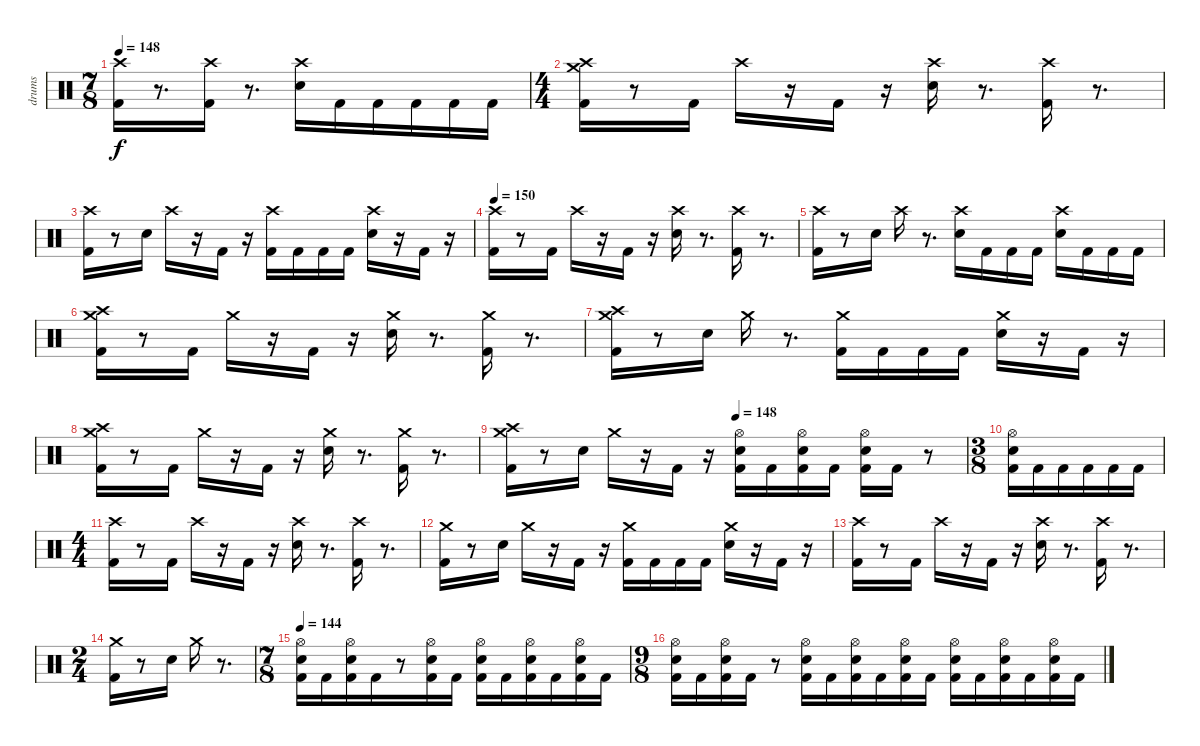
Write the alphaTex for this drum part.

\track ("drums" "drums") {instrument percussion}
\staff {score}
\articulation defaults
\ts (7 8)
\tempo 148
\clef neutral
\ks c
("Kick (hit) 2" "Crash high (hit)").16{dy f} r.8{d} ("Kick (hit) 2" "Crash high (hit)").16 r.8{d} ("Snare (hit) 2" "Crash high (hit)").16 "Kick (hit) 2".16 "Kick (hit) 2".16 "Kick (hit) 2".16 "Kick (hit) 2".16 "Kick (hit) 2".16 |
\ts (4 4)
("Kick (hit) 2" "Crash high (hit)" "Crash medium (hit)").16 r.8 "Kick (hit) 2".16 "Crash high (hit)".16 r.16 "Kick (hit) 2".16 r.16 ("Snare (hit) 2" "Crash high (hit)").16 r.8{d} ("Kick (hit) 2" "Crash high (hit)").16 r.8{d} |
("Kick (hit) 2" "Crash high (hit)").16 r.8 "Snare (hit) 2".16 "Crash high (hit)".16 r.16 "Kick (hit) 2".16 r.16 ("Kick (hit) 2" "Crash high (hit)").16 "Kick (hit) 2".16 "Kick (hit) 2".16 "Kick (hit) 2".16 ("Snare (hit) 2" "Crash high (hit)").16 r.16 "Kick (hit) 2".16 r.16 |
\tempo 150
("Kick (hit) 2" "Crash high (hit)").16 r.8 "Kick (hit) 2".16 "Crash high (hit)".16 r.16 "Kick (hit) 2".16 r.16 ("Snare (hit) 2" "Crash high (hit)").16 r.8{d} ("Kick (hit) 2" "Crash high (hit)").16 r.8{d} |
("Kick (hit) 2" "Crash high (hit)").16 r.8 "Snare (hit) 2".16 "Crash high (hit)".16 r.8{d} ("Snare (hit) 2" "Crash high (hit)").16 "Kick (hit) 2".16 "Kick (hit) 2".16 "Kick (hit) 2".16 ("Snare (hit) 2" "Crash high (hit)").16 "Kick (hit) 2".16 "Kick (hit) 2".16 "Kick (hit) 2".16 |
("Kick (hit) 2" "Crash high (hit)" "Crash medium (hit)").16 r.8 "Kick (hit) 2".16 "Crash medium (hit)".16 r.16 "Kick (hit) 2".16 r.16 ("Snare (hit) 2" "Crash medium (hit)").16 r.8{d} ("Kick (hit) 2" "Crash medium (hit)").16 r.8{d} |
("Kick (hit) 2" "Crash high (hit)" "Crash medium (hit)").16 r.8 "Snare (hit) 2".16 "Crash medium (hit)".16 r.8{d} ("Kick (hit) 2" "Crash medium (hit)").16 "Kick (hit) 2".16 "Kick (hit) 2".16 "Kick (hit) 2".16 ("Snare (hit) 2" "Crash medium (hit)").16 r.16 "Kick (hit) 2".16 r.16 |
("Kick (hit) 2" "Crash high (hit)" "Crash medium (hit)").16 r.8 "Kick (hit) 2".16 "Crash medium (hit)".16 r.16 "Kick (hit) 2".16 r.16 ("Snare (hit) 2" "Crash medium (hit)").16 r.8{d} ("Kick (hit) 2" "Crash medium (hit)").16 r.8{d} |
\tempo (148 0.5)
("Kick (hit) 2" "Crash high (hit)" "Crash medium (hit)").16 r.8 "Snare (hit) 2".16 "Crash medium (hit)".16 r.16 "Kick (hit) 2".16 r.16 ("Kick (hit) 2" "Snare (hit) 2" "Hi-Hat (open)").16 "Kick (hit) 2".16 ("Kick (hit) 2" "Snare (hit) 2" "Hi-Hat (open)").16 "Kick (hit) 2".16 ("Kick (hit) 2" "Snare (hit) 2" "Hi-Hat (open)").16 "Kick (hit) 2".16 r.8 |
\ts (3 8)
("Kick (hit) 2" "Snare (hit) 2" "Hi-Hat (open)").16 "Kick (hit) 2".16 "Kick (hit) 2".16 "Kick (hit) 2".16 "Kick (hit) 2".16 "Kick (hit) 2".16 |
\ts (4 4)
("Kick (hit) 2" "Crash high (hit)").16 r.8 "Kick (hit) 2".16 "Crash high (hit)".16 r.16 "Kick (hit) 2".16 r.16 ("Snare (hit) 2" "Crash high (hit)").16 r.8{d} ("Kick (hit) 2" "Crash high (hit)").16 r.8{d} |
("Kick (hit) 2" "Crash medium (hit)").16 r.8 "Snare (hit) 2".16 "Crash medium (hit)".16 r.16 "Kick (hit) 2".16 r.16 ("Kick (hit) 2" "Crash medium (hit)").16 "Kick (hit) 2".16 "Kick (hit) 2".16 "Kick (hit) 2".16 ("Snare (hit) 2" "Crash medium (hit)").16 r.16 "Kick (hit) 2".16 r.16 |
("Kick (hit) 2" "Crash high (hit)").16 r.8 "Kick (hit) 2".16 "Crash high (hit)".16 r.16 "Kick (hit) 2".16 r.16 ("Snare (hit) 2" "Crash high (hit)").16 r.8{d} ("Kick (hit) 2" "Crash high (hit)").16 r.8{d} |
\ts (2 4)
("Kick (hit) 2" "Crash medium (hit)").16 r.8 "Snare (hit) 2".16 "Crash medium (hit)".16 r.8{d} |
\ts (7 8)
\tempo 144
("Kick (hit) 2" "Snare (hit) 2" "Hi-Hat (open)").16 "Kick (hit) 2".16 ("Kick (hit) 2" "Snare (hit) 2" "Hi-Hat (open)").16 "Kick (hit) 2".16 r.8 ("Kick (hit) 2" "Snare (hit) 2" "Hi-Hat (open)").16 "Kick (hit) 2".16 ("Kick (hit) 2" "Snare (hit) 2" "Hi-Hat (open)").16 "Kick (hit) 2".16 ("Kick (hit) 2" "Snare (hit) 2" "Hi-Hat (open)").16 "Kick (hit) 2".16 ("Kick (hit) 2" "Snare (hit) 2" "Hi-Hat (open)").16 "Kick (hit) 2".16 |
\ts (9 8)
("Kick (hit) 2" "Snare (hit) 2" "Hi-Hat (open)").16 "Kick (hit) 2".16 ("Kick (hit) 2" "Snare (hit) 2" "Hi-Hat (open)").16 "Kick (hit) 2".16 r.8 ("Kick (hit) 2" "Snare (hit) 2" "Hi-Hat (open)").16 "Kick (hit) 2".16 ("Kick (hit) 2" "Snare (hit) 2" "Hi-Hat (open)").16 "Kick (hit) 2".16 ("Kick (hit) 2" "Snare (hit) 2" "Hi-Hat (open)").16 "Kick (hit) 2".16 ("Kick (hit) 2" "Snare (hit) 2" "Hi-Hat (open)").16 "Kick (hit) 2".16 ("Kick (hit) 2" "Snare (hit) 2" "Hi-Hat (open)").16 "Kick (hit) 2".16 ("Kick (hit) 2" "Snare (hit) 2" "Hi-Hat (open)").16 "Kick (hit) 2".16
